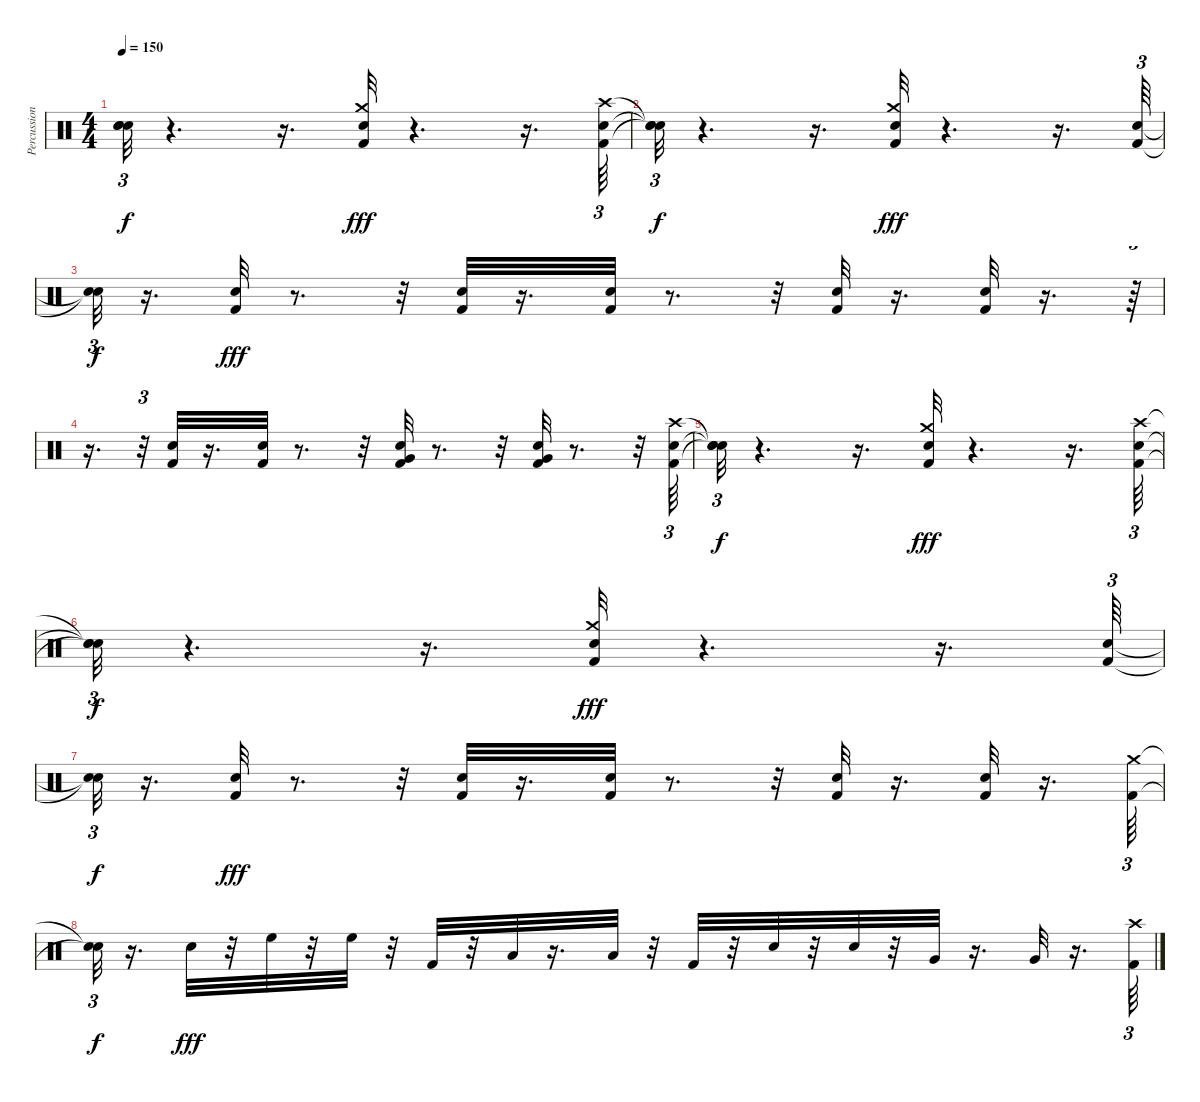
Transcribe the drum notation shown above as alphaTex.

\track ("Percussion" "Percussion") {instrument percussion}
\staff {score}
\articulation defaults
\ts (4 4)
\tempo 150
\clef neutral
\ks c
("Snare (hit)"{t} "Snare (hit)"{t} "Snare (hit)"{t}).32{tu (3 2) dy f} r.4{d} r.16{d} ("Crash medium (hit)" "Kick (hit) 2" "Snare (hit) 2").32{dy fff} r.4{d} r.16{d} ("Snare (hit) 2" "Crash high (hit)" "Kick (hit) 2").64{tu (3 2)} |
("Snare (hit)"{t} "Snare (hit)"{t} "Snare (hit)"{t}).32{tu (3 2) dy f} r.4{d} r.16{d} ("Crash medium (hit)" "Kick (hit) 2" "Snare (hit) 2").32{dy fff} r.4{d} r.16{d} ("Kick (hit) 2" "Snare (hit) 2").64{tu (3 2)} |
("Snare (hit)"{t} "Snare (hit)"{t}).32{tu (3 2) dy f} r.16{d} ("Snare (hit) 2" "Kick (hit) 2").32{dy fff} r.8{d} r.32 ("Snare (hit) 2" "Kick (hit) 2").32 r.16{d} ("Snare (hit) 2" "Kick (hit) 2").32 r.8{d} r.32 ("Kick (hit) 2" "Snare (hit) 2").32 r.16{d} ("Kick (hit) 2" "Snare (hit) 2").32 r.16{d} r.64{tu (3 2)} |
r.16{d} r.32{tu (3 2)} ("Kick (hit) 2" "Snare (hit) 2").32 r.16{d} ("Snare (hit) 2" "Kick (hit) 2").32 r.8{d} r.32 ("Very Low Tom (hit)" "Snare (hit) 2" "Kick (hit) 2").32 r.8{d} r.32 ("Very Low Tom (hit)" "Snare (hit) 2" "Kick (hit) 2").32 r.8{d} r.32 ("Crash high (hit)" "Kick (hit) 2" "Snare (hit) 2").64{tu (3 2)} |
("Snare (hit)"{t} "Snare (hit)"{t} "Snare (hit)"{t}).32{tu (3 2) dy f} r.4{d} r.16{d} ("Crash medium (hit)" "Kick (hit) 2" "Snare (hit) 2").32{dy fff} r.4{d} r.16{d} ("Snare (hit) 2" "Crash high (hit)" "Kick (hit) 2").64{tu (3 2)} |
("Snare (hit)"{t} "Snare (hit)"{t} "Snare (hit)"{t}).32{tu (3 2) dy f} r.4{d} r.16{d} ("Crash medium (hit)" "Kick (hit) 2" "Snare (hit) 2").32{dy fff} r.4{d} r.16{d} ("Kick (hit) 2" "Snare (hit) 2").64{tu (3 2)} |
("Snare (hit)"{t} "Snare (hit)"{t}).32{tu (3 2) dy f} r.16{d} ("Snare (hit) 2" "Kick (hit) 2").32{dy fff} r.8{d} r.32 ("Snare (hit) 2" "Kick (hit) 2").32 r.16{d} ("Snare (hit) 2" "Kick (hit) 2").32 r.8{d} r.32 ("Kick (hit) 2" "Snare (hit) 2").32 r.16{d} ("Kick (hit) 2" "Snare (hit) 2").32 r.16{d} ("Kick (hit) 2" "Crash medium (hit)").64{tu (3 2)} |
("Snare (hit)"{t} "Snare (hit)"{t}).32{tu (3 2) dy f} r.16{d} "Electric Snare (hit)".32{dy fff} r.32 "High Floor Tom (hit)".32 r.32 "High Floor Tom (hit)".32 r.32 "Kick (hit) 2".32 r.32 "Low Tom (hit)".32 r.16{d} "Low Tom (hit)".32 r.32 "Kick (hit) 2".32 r.32 "Electric Snare (hit)".32 r.32 "Snare (hit) 2".32 r.32 "Very Low Tom (hit)".32 r.16{d} "Very Low Tom (hit)".32 r.16{d} ("Crash high (hit)" "Kick (hit) 2").64{tu (3 2)}
